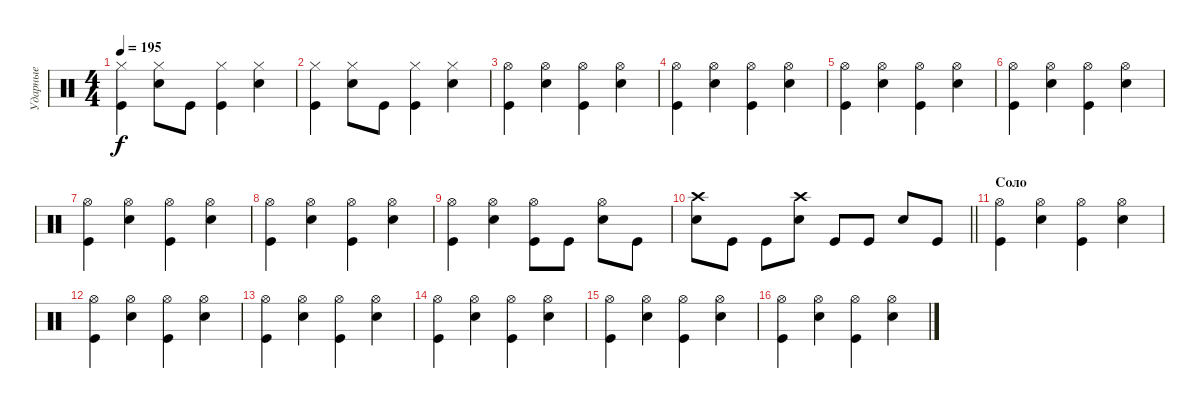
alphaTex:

\track ("Ударные" "Ударные") {instrument percussion}
\staff {score}
\articulation defaults
\ts (4 4)
\tempo 195
\clef neutral
\ks c
("Hi-Hat (closed)" "Kick (hit)").4{dy f} ("Hi-Hat (closed)" "Electric Snare (hit)").8 "Kick (hit)".8 ("Hi-Hat (closed)" "Kick (hit)").4 ("Hi-Hat (closed)" "Electric Snare (hit)").4 |
("Hi-Hat (closed)" "Kick (hit)").4 ("Hi-Hat (closed)" "Electric Snare (hit)").8 "Kick (hit)".8 ("Hi-Hat (closed)" "Kick (hit)").4 ("Hi-Hat (closed)" "Electric Snare (hit)").4 |
("Hi-Hat (open)" "Kick (hit)").4 ("Hi-Hat (open)" "Electric Snare (hit)").4 ("Hi-Hat (open)" "Kick (hit)").4 ("Hi-Hat (open)" "Electric Snare (hit)").4 |
("Hi-Hat (open)" "Kick (hit)").4 ("Hi-Hat (open)" "Electric Snare (hit)").4 ("Hi-Hat (open)" "Kick (hit)").4 ("Hi-Hat (open)" "Electric Snare (hit)").4 |
("Hi-Hat (open)" "Kick (hit)").4 ("Hi-Hat (open)" "Electric Snare (hit)").4 ("Hi-Hat (open)" "Kick (hit)").4 ("Hi-Hat (open)" "Electric Snare (hit)").4 |
("Hi-Hat (open)" "Kick (hit)").4 ("Hi-Hat (open)" "Electric Snare (hit)").4 ("Hi-Hat (open)" "Kick (hit)").4 ("Hi-Hat (open)" "Electric Snare (hit)").4 |
("Hi-Hat (open)" "Kick (hit)").4 ("Hi-Hat (open)" "Electric Snare (hit)").4 ("Hi-Hat (open)" "Kick (hit)").4 ("Hi-Hat (open)" "Electric Snare (hit)").4 |
("Hi-Hat (open)" "Kick (hit)").4 ("Hi-Hat (open)" "Electric Snare (hit)").4 ("Hi-Hat (open)" "Kick (hit)").4 ("Hi-Hat (open)" "Electric Snare (hit)").4 |
("Hi-Hat (open)" "Kick (hit)").4 ("Hi-Hat (open)" "Electric Snare (hit)").4 ("Hi-Hat (open)" "Kick (hit)").8 "Kick (hit)".8 ("Hi-Hat (open)" "Electric Snare (hit)").8 "Kick (hit)".8 |
\barLineRight lightlight
("Crash high (hit)" "Electric Snare (hit)").8 "Kick (hit)".8 "Kick (hit)".8 ("Crash high (hit)" "Electric Snare (hit)").8 "Kick (hit)".8 "Kick (hit)".8 "Electric Snare (hit)".8 "Kick (hit)".8 |
\section ("" "Соло")
("Hi-Hat (open)" "Kick (hit)").4 ("Hi-Hat (open)" "Electric Snare (hit)").4 ("Hi-Hat (open)" "Kick (hit)").4 ("Hi-Hat (open)" "Electric Snare (hit)").4 |
("Hi-Hat (open)" "Kick (hit)").4 ("Hi-Hat (open)" "Electric Snare (hit)").4 ("Hi-Hat (open)" "Kick (hit)").4 ("Hi-Hat (open)" "Electric Snare (hit)").4 |
("Hi-Hat (open)" "Kick (hit)").4 ("Hi-Hat (open)" "Electric Snare (hit)").4 ("Hi-Hat (open)" "Kick (hit)").4 ("Hi-Hat (open)" "Electric Snare (hit)").4 |
("Hi-Hat (open)" "Kick (hit)").4 ("Hi-Hat (open)" "Electric Snare (hit)").4 ("Hi-Hat (open)" "Kick (hit)").4 ("Hi-Hat (open)" "Electric Snare (hit)").4 |
("Hi-Hat (open)" "Kick (hit)").4 ("Hi-Hat (open)" "Electric Snare (hit)").4 ("Hi-Hat (open)" "Kick (hit)").4 ("Hi-Hat (open)" "Electric Snare (hit)").4 |
("Hi-Hat (open)" "Kick (hit)").4 ("Hi-Hat (open)" "Electric Snare (hit)").4 ("Hi-Hat (open)" "Kick (hit)").4 ("Hi-Hat (open)" "Electric Snare (hit)").4
